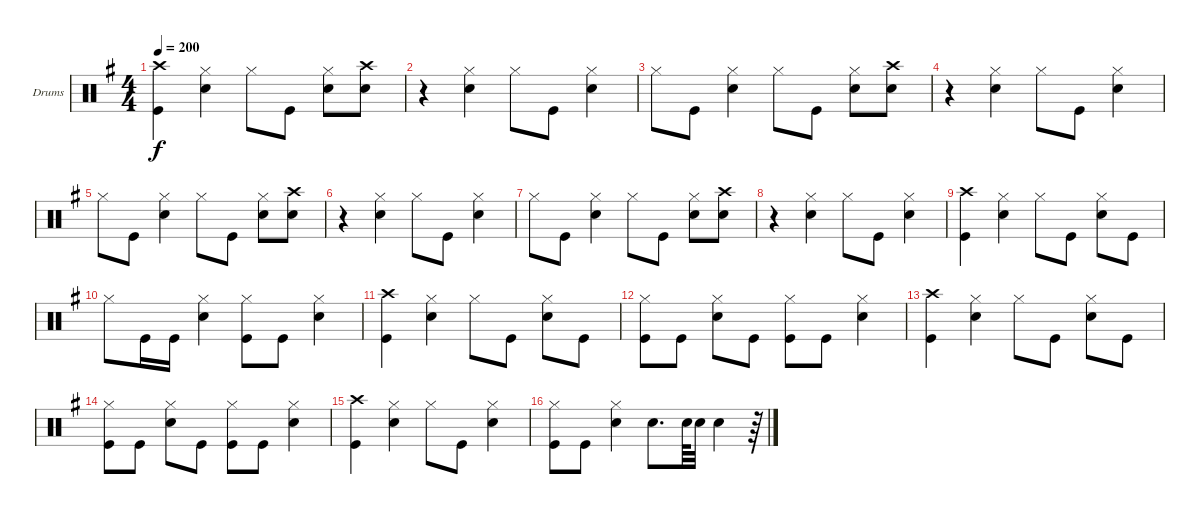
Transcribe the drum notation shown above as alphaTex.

\bracketExtendMode groupsimilarinstruments
\firstSystemTrackNameOrientation horizontal
\otherSystemsTrackNameOrientation horizontal
\track ("Drumkit" "Drums") {instrument percussion}
\staff {score}
\articulation defaults
\ts (4 4)
\tempo 200
\clef neutral
\ks g
("Kick (hit)" "Crash high (hit)").4{dy f} ("Hi-Hat (closed)" "Snare (hit) 2").4 "Hi-Hat (closed)".8 "Kick (hit)".8 ("Hi-Hat (closed)" "Snare (hit) 2").8 ("Crash high (hit)" "Snare (hit) 2").8 |
r.4 ("Snare (hit) 2" "Hi-Hat (closed)").4 "Hi-Hat (closed)".8 "Kick (hit)".8 ("Snare (hit) 2" "Hi-Hat (closed)").4 |
"Hi-Hat (closed)".8 "Kick (hit)".8 ("Snare (hit) 2" "Hi-Hat (closed)").4 "Hi-Hat (closed)".8 "Kick (hit)".8 ("Hi-Hat (closed)" "Snare (hit) 2").8 ("Crash high (hit)" "Snare (hit) 2").8 |
r.4 ("Snare (hit) 2" "Hi-Hat (closed)").4 "Hi-Hat (closed)".8 "Kick (hit)".8 ("Snare (hit) 2" "Hi-Hat (closed)").4 |
"Hi-Hat (closed)".8 "Kick (hit)".8 ("Snare (hit) 2" "Hi-Hat (closed)").4 "Hi-Hat (closed)".8 "Kick (hit)".8 ("Hi-Hat (closed)" "Snare (hit) 2").8 ("Crash high (hit)" "Snare (hit) 2").8 |
r.4 ("Snare (hit) 2" "Hi-Hat (closed)").4 "Hi-Hat (closed)".8 "Kick (hit)".8 ("Snare (hit) 2" "Hi-Hat (closed)").4 |
"Hi-Hat (closed)".8 "Kick (hit)".8 ("Snare (hit) 2" "Hi-Hat (closed)").4 "Hi-Hat (closed)".8 "Kick (hit)".8 ("Hi-Hat (closed)" "Snare (hit) 2").8 ("Crash high (hit)" "Snare (hit) 2").8 |
r.4 ("Snare (hit) 2" "Hi-Hat (closed)").4 "Hi-Hat (closed)".8 "Kick (hit)".8 ("Snare (hit) 2" "Hi-Hat (closed)").4 |
("Kick (hit)" "Crash high (hit)").4 ("Hi-Hat (closed)" "Snare (hit) 2").4 "Hi-Hat (closed)".8 "Kick (hit)".8 ("Snare (hit) 2" "Hi-Hat (closed)").8 "Kick (hit)".8 |
"Hi-Hat (closed)".8 "Kick (hit)".16 "Kick (hit)".16 ("Snare (hit) 2" "Hi-Hat (closed)").4 ("Hi-Hat (closed)" "Kick (hit)").8 "Kick (hit)".8 ("Snare (hit) 2" "Hi-Hat (closed)").4 |
("Kick (hit)" "Crash high (hit)").4 ("Hi-Hat (closed)" "Snare (hit) 2").4 "Hi-Hat (closed)".8 "Kick (hit)".8 ("Snare (hit) 2" "Hi-Hat (closed)").8 "Kick (hit)".8 |
("Hi-Hat (closed)" "Kick (hit)").8 "Kick (hit)".8 ("Snare (hit) 2" "Hi-Hat (closed)").8 "Kick (hit)".8 ("Hi-Hat (closed)" "Kick (hit)").8 "Kick (hit)".8 ("Snare (hit) 2" "Hi-Hat (closed)").4 |
("Kick (hit)" "Crash high (hit)").4 ("Hi-Hat (closed)" "Snare (hit) 2").4 "Hi-Hat (closed)".8 "Kick (hit)".8 ("Snare (hit) 2" "Hi-Hat (closed)").8 "Kick (hit)".8 |
("Hi-Hat (closed)" "Kick (hit)").8 "Kick (hit)".8 ("Snare (hit) 2" "Hi-Hat (closed)").8 "Kick (hit)".8 ("Hi-Hat (closed)" "Kick (hit)").8 "Kick (hit)".8 ("Snare (hit) 2" "Hi-Hat (closed)").4 |
("Kick (hit)" "Crash high (hit)").4 ("Snare (hit) 2" "Hi-Hat (closed)").4 "Hi-Hat (closed)".8 "Kick (hit)".8 ("Snare (hit) 2" "Hi-Hat (closed)").4 |
("Hi-Hat (closed)" "Kick (hit)").8 "Kick (hit)".8 ("Snare (hit) 2" "Hi-Hat (closed)").4 "Snare (hit) 2".8{d} "Snare (hit) 2".64 "Snare (hit) 2".32 "Snare (hit) 2".4 r.64
